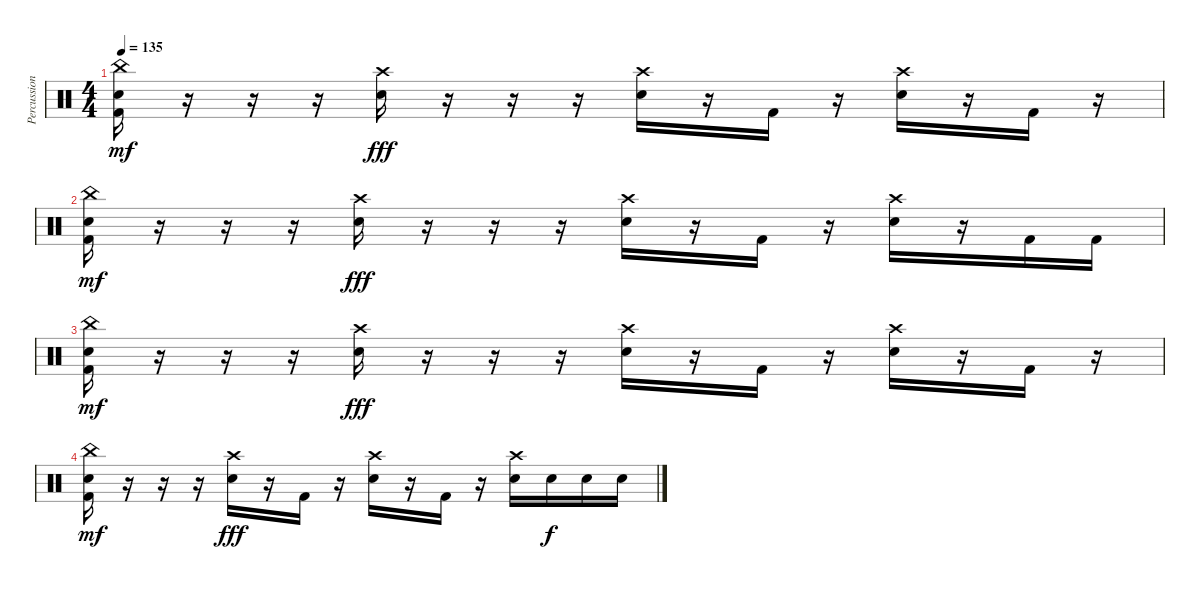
\track ("Percussion" "Percussion") {instrument percussion bank 255}
\staff {score}
\articulation defaults
\ts (4 4)
\tempo 135
\clef neutral
\ks c
("China (hit)" "Electric Snare (hit)" "Kick (hit) 2").16{dy mf} r.16 r.16 r.16 ("Crash high (hit)" "Electric Snare (hit)").16{dy fff} r.16 r.16 r.16 ("Crash high (hit)" "Electric Snare (hit)").16 r.16 "Kick (hit) 2".16 r.16 ("Crash high (hit)" "Electric Snare (hit)").16 r.16 "Kick (hit) 2".16 r.16 |
("China (hit)" "Electric Snare (hit)" "Kick (hit) 2").16{dy mf} r.16 r.16 r.16 ("Crash high (hit)" "Electric Snare (hit)").16{dy fff} r.16 r.16 r.16 ("Crash high (hit)" "Electric Snare (hit)").16 r.16 "Kick (hit) 2".16 r.16 ("Crash high (hit)" "Electric Snare (hit)").16 r.16 "Kick (hit) 2".16 "Kick (hit) 2".16 |
("China (hit)" "Electric Snare (hit)" "Kick (hit) 2").16{dy mf} r.16 r.16 r.16 ("Crash high (hit)" "Electric Snare (hit)").16{dy fff} r.16 r.16 r.16 ("Crash high (hit)" "Electric Snare (hit)").16 r.16 "Kick (hit) 2".16 r.16 ("Crash high (hit)" "Electric Snare (hit)").16 r.16 "Kick (hit) 2".16 r.16 |
("China (hit)" "Electric Snare (hit)" "Kick (hit) 2").16{dy mf} r.16 r.16 r.16 ("Crash high (hit)" "Electric Snare (hit)").16{dy fff} r.16 "Kick (hit) 2".16 r.16 ("Crash high (hit)" "Electric Snare (hit)").16 r.16 "Kick (hit) 2".16 r.16 ("Crash high (hit)" "Electric Snare (hit)").16 "Electric Snare (hit)".16{dy f} "Electric Snare (hit)".16 "Electric Snare (hit)".16
